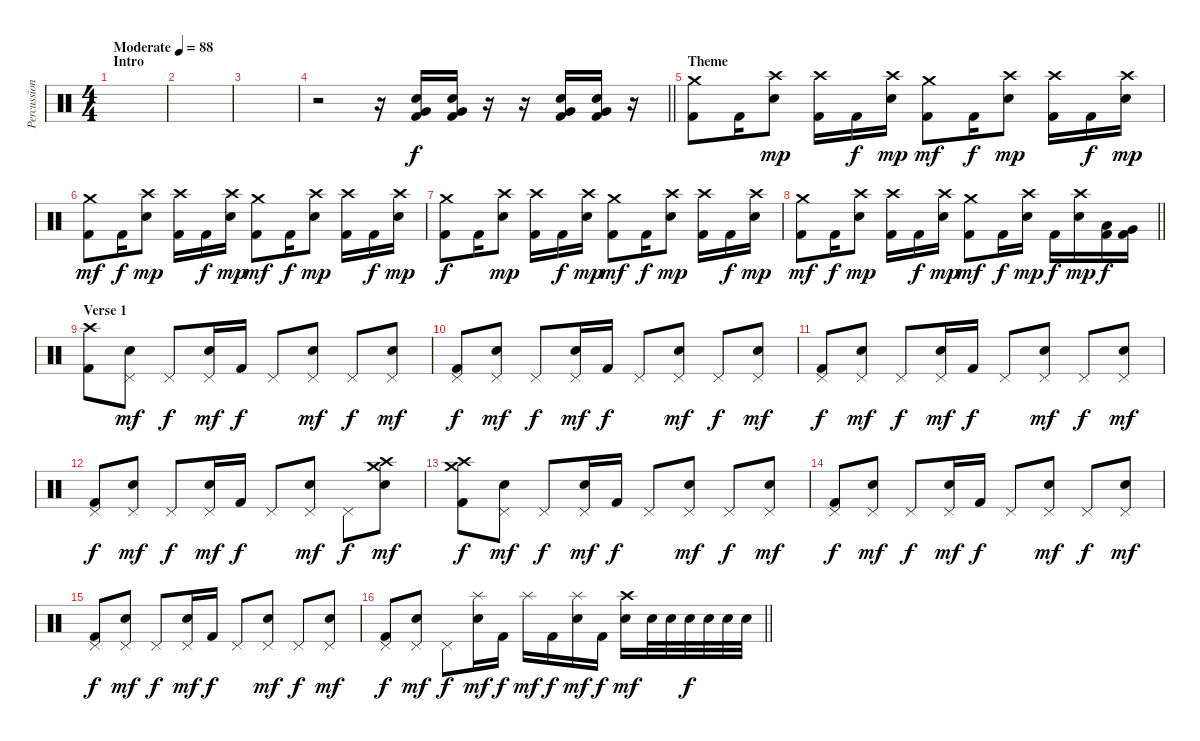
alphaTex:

\track ("Percussion" "Percussion") {instrument percussion}
\staff {score}
\articulation defaults
\ts (4 4)
\section ("" "Intro")
\tempo (88 "Moderate")
\clef neutral
\ks c
|
|
|
\barLineRight lightlight
r.2 r.16 ("Electric Snare (hit)" "Very Low Tom (hit)" "Kick (hit) 2").16 ("Electric Snare (hit)" "Very Low Tom (hit)" "Kick (hit) 2").16 r.16 r.16 ("Electric Snare (hit)" "Very Low Tom (hit)" "Kick (hit) 2").16 ("Electric Snare (hit)" "Very Low Tom (hit)" "Kick (hit) 2").16 r.16 |
\section ("" "Theme")
("Crash medium (hit)" "Kick (hit) 2").8{dy f} "Kick (hit) 2".16 ("Crash high (hit)" "Electric Snare (hit)").8{dy mp} ("Crash high (hit)" "Kick (hit) 2").16 "Kick (hit) 2".16{dy f} ("Crash high (hit)" "Electric Snare (hit)").16{dy mp} ("Crash medium (hit)" "Kick (hit) 2").8{dy mf} "Kick (hit) 2".16{dy f} ("Crash high (hit)" "Electric Snare (hit)").8{dy mp} ("Crash high (hit)" "Kick (hit) 2").16 "Kick (hit) 2".16{dy f} ("Crash high (hit)" "Electric Snare (hit)").16{dy mp} |
("Crash medium (hit)" "Kick (hit) 2").8{dy mf} "Kick (hit) 2".16{dy f} ("Crash high (hit)" "Electric Snare (hit)").8{dy mp} ("Crash high (hit)" "Kick (hit) 2").16 "Kick (hit) 2".16{dy f} ("Crash high (hit)" "Electric Snare (hit)").16{dy mp} ("Crash medium (hit)" "Kick (hit) 2").8{dy mf} "Kick (hit) 2".16{dy f} ("Crash high (hit)" "Electric Snare (hit)").8{dy mp} ("Crash high (hit)" "Kick (hit) 2").16 "Kick (hit) 2".16{dy f} ("Crash high (hit)" "Electric Snare (hit)").16{dy mp} |
("Crash medium (hit)" "Kick (hit) 2").8{dy f} "Kick (hit) 2".16 ("Crash high (hit)" "Electric Snare (hit)").8{dy mp} ("Crash high (hit)" "Kick (hit) 2").16 "Kick (hit) 2".16{dy f} ("Crash high (hit)" "Electric Snare (hit)").16{dy mp} ("Crash medium (hit)" "Kick (hit) 2").8{dy mf} "Kick (hit) 2".16{dy f} ("Crash high (hit)" "Electric Snare (hit)").8{dy mp} ("Crash high (hit)" "Kick (hit) 2").16 "Kick (hit) 2".16{dy f} ("Crash high (hit)" "Electric Snare (hit)").16{dy mp} |
\barLineRight lightlight
("Crash medium (hit)" "Kick (hit) 2").8{dy mf} "Kick (hit) 2".16{dy f} ("Crash high (hit)" "Electric Snare (hit)").8{dy mp} ("Crash high (hit)" "Kick (hit) 2").16 "Kick (hit) 2".16{dy f} ("Crash high (hit)" "Electric Snare (hit)").16{dy mp} ("Crash medium (hit)" "Kick (hit) 2").8{dy mf} "Kick (hit) 2".16{dy f} ("Crash high (hit)" "Electric Snare (hit)").16{dy mp} "Kick (hit) 2".16{dy f} ("Crash high (hit)" "Electric Snare (hit)").16{dy mp} ("Low Tom (hit)" "Kick (hit) 2").16{dy f} ("Very Low Tom (hit)" "Kick (hit) 2").16 |
\section ("" "Verse 1")
("Crash high (hit)" "Kick (hit) 2").8 ("Pedal Hi-Hat (hit)" "Electric Snare (hit)").8{dy mf} "Pedal Hi-Hat (hit)".8{dy f} ("Pedal Hi-Hat (hit)" "Electric Snare (hit)").16{dy mf} "Kick (hit) 2".16{dy f} "Pedal Hi-Hat (hit)".8 ("Pedal Hi-Hat (hit)" "Electric Snare (hit)").8{dy mf} "Pedal Hi-Hat (hit)".8{dy f} ("Pedal Hi-Hat (hit)" "Electric Snare (hit)").8{dy mf} |
("Pedal Hi-Hat (hit)" "Kick (hit) 2").8{dy f} ("Pedal Hi-Hat (hit)" "Electric Snare (hit)").8{dy mf} "Pedal Hi-Hat (hit)".8{dy f} ("Pedal Hi-Hat (hit)" "Electric Snare (hit)").16{dy mf} "Kick (hit) 2".16{dy f} "Pedal Hi-Hat (hit)".8 ("Pedal Hi-Hat (hit)" "Electric Snare (hit)").8{dy mf} "Pedal Hi-Hat (hit)".8{dy f} ("Pedal Hi-Hat (hit)" "Electric Snare (hit)").8{dy mf} |
("Pedal Hi-Hat (hit)" "Kick (hit) 2").8{dy f} ("Pedal Hi-Hat (hit)" "Electric Snare (hit)").8{dy mf} "Pedal Hi-Hat (hit)".8{dy f} ("Pedal Hi-Hat (hit)" "Electric Snare (hit)").16{dy mf} "Kick (hit) 2".16{dy f} "Pedal Hi-Hat (hit)".8 ("Pedal Hi-Hat (hit)" "Electric Snare (hit)").8{dy mf} "Pedal Hi-Hat (hit)".8{dy f} ("Pedal Hi-Hat (hit)" "Electric Snare (hit)").8{dy mf} |
("Pedal Hi-Hat (hit)" "Kick (hit) 2").8{dy f} ("Pedal Hi-Hat (hit)" "Electric Snare (hit)").8{dy mf} "Pedal Hi-Hat (hit)".8{dy f} ("Pedal Hi-Hat (hit)" "Electric Snare (hit)").16{dy mf} "Kick (hit) 2".16{dy f} "Pedal Hi-Hat (hit)".8 ("Pedal Hi-Hat (hit)" "Electric Snare (hit)").8{dy mf} "Pedal Hi-Hat (hit)".8{dy f} ("Crash high (hit)" "Crash medium (hit)" "Electric Snare (hit)").8{dy mf} |
("Crash high (hit)" "Crash medium (hit)" "Kick (hit) 2").8{dy f} ("Pedal Hi-Hat (hit)" "Electric Snare (hit)").8{dy mf} "Pedal Hi-Hat (hit)".8{dy f} ("Pedal Hi-Hat (hit)" "Electric Snare (hit)").16{dy mf} "Kick (hit) 2".16{dy f} "Pedal Hi-Hat (hit)".8 ("Pedal Hi-Hat (hit)" "Electric Snare (hit)").8{dy mf} "Pedal Hi-Hat (hit)".8{dy f} ("Pedal Hi-Hat (hit)" "Electric Snare (hit)").8{dy mf} |
("Pedal Hi-Hat (hit)" "Kick (hit) 2").8{dy f} ("Pedal Hi-Hat (hit)" "Electric Snare (hit)").8{dy mf} "Pedal Hi-Hat (hit)".8{dy f} ("Pedal Hi-Hat (hit)" "Electric Snare (hit)").16{dy mf} "Kick (hit) 2".16{dy f} "Pedal Hi-Hat (hit)".8 ("Pedal Hi-Hat (hit)" "Electric Snare (hit)").8{dy mf} "Pedal Hi-Hat (hit)".8{dy f} ("Pedal Hi-Hat (hit)" "Electric Snare (hit)").8{dy mf} |
("Pedal Hi-Hat (hit)" "Kick (hit) 2").8{dy f} ("Pedal Hi-Hat (hit)" "Electric Snare (hit)").8{dy mf} "Pedal Hi-Hat (hit)".8{dy f} ("Pedal Hi-Hat (hit)" "Electric Snare (hit)").16{dy mf} "Kick (hit) 2".16{dy f} "Pedal Hi-Hat (hit)".8 ("Pedal Hi-Hat (hit)" "Electric Snare (hit)").8{dy mf} "Pedal Hi-Hat (hit)".8{dy f} ("Pedal Hi-Hat (hit)" "Electric Snare (hit)").8{dy mf} |
\barLineRight lightlight
("Pedal Hi-Hat (hit)" "Kick (hit) 2").8{dy f} ("Pedal Hi-Hat (hit)" "Electric Snare (hit)").8{dy mf} "Pedal Hi-Hat (hit)".8{dy f} ("Splash (hit)" "Electric Snare (hit)").16{dy mf} "Kick (hit) 2".16{dy f} "Splash (hit)".16{dy mf} "Kick (hit) 2".16{dy f} ("Splash (hit)" "Electric Snare (hit)").16{dy mf} "Kick (hit) 2".16{dy f} ("Crash high (hit)" "Electric Snare (hit)").16{dy mf} "Electric Snare (hit)".32 "Electric Snare (hit)".32 "Electric Snare (hit)".32{dy f} "Electric Snare (hit)".32 "Electric Snare (hit)".32 "Electric Snare (hit)".32
